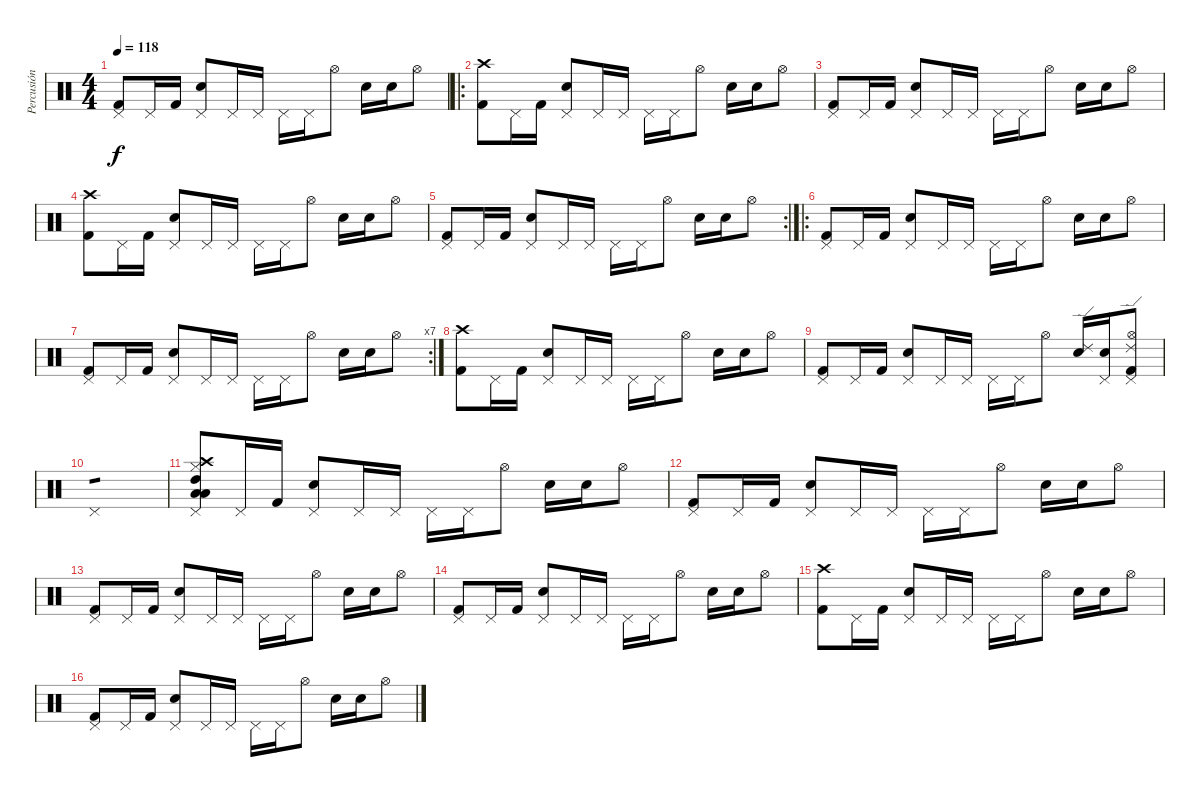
\track ("Percusión" "Percusión") {instrument percussion}
\staff {score}
\articulation defaults
\ts (4 4)
\tempo 118
\clef neutral
\ks c
("Pedal Hi-Hat (hit)" "Kick (hit) 2").8{dy f} "Pedal Hi-Hat (hit)".16 "Kick (hit) 2".16 ("Pedal Hi-Hat (hit)" "Snare (hit) 2").8 "Pedal Hi-Hat (hit)".16 "Pedal Hi-Hat (hit)".16 "Pedal Hi-Hat (hit)".16 "Pedal Hi-Hat (hit)".16 "Hi-Hat (open)".8 "Snare (hit) 2".16 "Snare (hit) 2".16 "Hi-Hat (open)".8 |
\ro
("Crash high (hit)" "Kick (hit) 2").8 "Pedal Hi-Hat (hit)".16 "Kick (hit) 2".16 ("Pedal Hi-Hat (hit)" "Snare (hit) 2").8 "Pedal Hi-Hat (hit)".16 "Pedal Hi-Hat (hit)".16 "Pedal Hi-Hat (hit)".16 "Pedal Hi-Hat (hit)".16 "Hi-Hat (open)".8 "Snare (hit) 2".16 "Snare (hit) 2".16 "Hi-Hat (open)".8 |
("Pedal Hi-Hat (hit)" "Kick (hit) 2").8 "Pedal Hi-Hat (hit)".16 "Kick (hit) 2".16 ("Pedal Hi-Hat (hit)" "Snare (hit) 2").8 "Pedal Hi-Hat (hit)".16 "Pedal Hi-Hat (hit)".16 "Pedal Hi-Hat (hit)".16 "Pedal Hi-Hat (hit)".16 "Hi-Hat (open)".8 "Snare (hit) 2".16 "Snare (hit) 2".16 "Hi-Hat (open)".8 |
("Crash high (hit)" "Kick (hit) 2").8 "Pedal Hi-Hat (hit)".16 "Kick (hit) 2".16 ("Pedal Hi-Hat (hit)" "Snare (hit) 2").8 "Pedal Hi-Hat (hit)".16 "Pedal Hi-Hat (hit)".16 "Pedal Hi-Hat (hit)".16 "Pedal Hi-Hat (hit)".16 "Hi-Hat (open)".8 "Snare (hit) 2".16 "Snare (hit) 2".16 "Hi-Hat (open)".8 |
\rc 2
("Pedal Hi-Hat (hit)" "Kick (hit) 2").8 "Pedal Hi-Hat (hit)".16 "Kick (hit) 2".16 ("Pedal Hi-Hat (hit)" "Snare (hit) 2").8 "Pedal Hi-Hat (hit)".16 "Pedal Hi-Hat (hit)".16 "Pedal Hi-Hat (hit)".16 "Pedal Hi-Hat (hit)".16 "Hi-Hat (open)".8 "Snare (hit) 2".16 "Snare (hit) 2".16 "Hi-Hat (open)".8 |
\ro
("Pedal Hi-Hat (hit)" "Kick (hit) 2").8 "Pedal Hi-Hat (hit)".16 "Kick (hit) 2".16 ("Pedal Hi-Hat (hit)" "Snare (hit) 2").8 "Pedal Hi-Hat (hit)".16 "Pedal Hi-Hat (hit)".16 "Pedal Hi-Hat (hit)".16 "Pedal Hi-Hat (hit)".16 "Hi-Hat (open)".8 "Snare (hit) 2".16 "Snare (hit) 2".16 "Hi-Hat (open)".8 |
\rc 7
("Pedal Hi-Hat (hit)" "Kick (hit) 2").8 "Pedal Hi-Hat (hit)".16 "Kick (hit) 2".16 ("Pedal Hi-Hat (hit)" "Snare (hit) 2").8 "Pedal Hi-Hat (hit)".16 "Pedal Hi-Hat (hit)".16 "Pedal Hi-Hat (hit)".16 "Pedal Hi-Hat (hit)".16 "Hi-Hat (open)".8 "Snare (hit) 2".16 "Snare (hit) 2".16 "Hi-Hat (open)".8 |
("Crash high (hit)" "Kick (hit) 2").8 "Pedal Hi-Hat (hit)".16 "Kick (hit) 2".16 ("Pedal Hi-Hat (hit)" "Snare (hit) 2").8 "Pedal Hi-Hat (hit)".16 "Pedal Hi-Hat (hit)".16 "Pedal Hi-Hat (hit)".16 "Pedal Hi-Hat (hit)".16 "Hi-Hat (open)".8 "Snare (hit) 2".16 "Snare (hit) 2".16 "Hi-Hat (open)".8 |
("Pedal Hi-Hat (hit)" "Kick (hit) 2").8 "Pedal Hi-Hat (hit)".16 "Kick (hit) 2".16 ("Pedal Hi-Hat (hit)" "Snare (hit) 2").8 "Pedal Hi-Hat (hit)".16 "Pedal Hi-Hat (hit)".16 "Pedal Hi-Hat (hit)".16 "Pedal Hi-Hat (hit)".16 "Hi-Hat (open)".8 ("Ride (edge) 2" "Snare (hit) 2").16 ("Pedal Hi-Hat (hit)" "Snare (hit) 2").16 ("Ride (edge) 2" "Pedal Hi-Hat (hit)" "Hi-Hat (open)" "Kick (hit) 2").8 |
"Pedal Hi-Hat (hit)".1{tp 1} |
("Crash high (hit)" "Low Tom (hit)" "Pedal Hi-Hat (hit)" "High Tom (hit)" "Hi-Hat (closed)" "Low Floor Tom (hit)").8 "Pedal Hi-Hat (hit)".16 "Kick (hit) 2".16 ("Pedal Hi-Hat (hit)" "Snare (hit) 2").8 "Pedal Hi-Hat (hit)".16 "Pedal Hi-Hat (hit)".16 "Pedal Hi-Hat (hit)".16 "Pedal Hi-Hat (hit)".16 "Hi-Hat (open)".8 "Snare (hit) 2".16 "Snare (hit) 2".16 "Hi-Hat (open)".8 |
("Pedal Hi-Hat (hit)" "Kick (hit) 2").8 "Pedal Hi-Hat (hit)".16 "Kick (hit) 2".16 ("Pedal Hi-Hat (hit)" "Snare (hit) 2").8 "Pedal Hi-Hat (hit)".16 "Pedal Hi-Hat (hit)".16 "Pedal Hi-Hat (hit)".16 "Pedal Hi-Hat (hit)".16 "Hi-Hat (open)".8 "Snare (hit) 2".16 "Snare (hit) 2".16 "Hi-Hat (open)".8 |
("Pedal Hi-Hat (hit)" "Kick (hit) 2").8 "Pedal Hi-Hat (hit)".16 "Kick (hit) 2".16 ("Pedal Hi-Hat (hit)" "Snare (hit) 2").8 "Pedal Hi-Hat (hit)".16 "Pedal Hi-Hat (hit)".16 "Pedal Hi-Hat (hit)".16 "Pedal Hi-Hat (hit)".16 "Hi-Hat (open)".8 "Snare (hit) 2".16 "Snare (hit) 2".16 "Hi-Hat (open)".8 |
("Pedal Hi-Hat (hit)" "Kick (hit) 2").8 "Pedal Hi-Hat (hit)".16 "Kick (hit) 2".16 ("Pedal Hi-Hat (hit)" "Snare (hit) 2").8 "Pedal Hi-Hat (hit)".16 "Pedal Hi-Hat (hit)".16 "Pedal Hi-Hat (hit)".16 "Pedal Hi-Hat (hit)".16 "Hi-Hat (open)".8 "Snare (hit) 2".16 "Snare (hit) 2".16 "Hi-Hat (open)".8 |
("Crash high (hit)" "Kick (hit) 2").8 "Pedal Hi-Hat (hit)".16 "Kick (hit) 2".16 ("Pedal Hi-Hat (hit)" "Snare (hit) 2").8 "Pedal Hi-Hat (hit)".16 "Pedal Hi-Hat (hit)".16 "Pedal Hi-Hat (hit)".16 "Pedal Hi-Hat (hit)".16 "Hi-Hat (open)".8 "Snare (hit) 2".16 "Snare (hit) 2".16 "Hi-Hat (open)".8 |
("Pedal Hi-Hat (hit)" "Kick (hit) 2").8 "Pedal Hi-Hat (hit)".16 "Kick (hit) 2".16 ("Pedal Hi-Hat (hit)" "Snare (hit) 2").8 "Pedal Hi-Hat (hit)".16 "Pedal Hi-Hat (hit)".16 "Pedal Hi-Hat (hit)".16 "Pedal Hi-Hat (hit)".16 "Hi-Hat (open)".8 "Snare (hit) 2".16 "Snare (hit) 2".16 "Hi-Hat (open)".8
